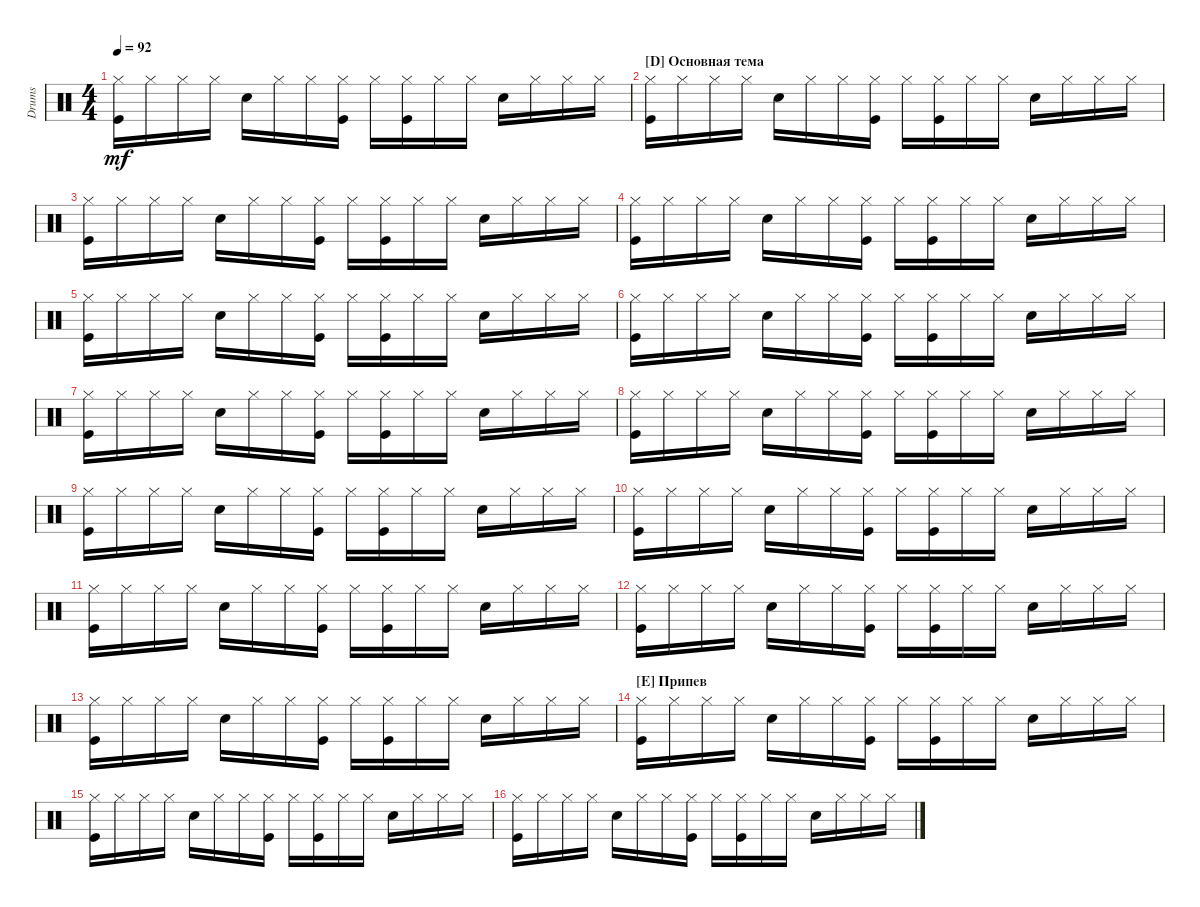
\track ("Drumkit" "Drums") {instrument percussion}
\staff {score}
\articulation defaults
\ts (4 4)
\tempo 92
\clef neutral
\ks c
("Kick (hit)" "Hi-Hat (closed)").16{dy mf} "Hi-Hat (closed)".16 "Hi-Hat (closed)".16 "Hi-Hat (closed)".16 "Snare (hit) 2".16 "Hi-Hat (closed)".16 "Hi-Hat (closed)".16 ("Hi-Hat (closed)" "Kick (hit)").16 "Hi-Hat (closed)".16 ("Hi-Hat (closed)" "Kick (hit)").16 "Hi-Hat (closed)".16 "Hi-Hat (closed)".16 "Snare (hit) 2".16 "Hi-Hat (closed)".16 "Hi-Hat (closed)".16 "Hi-Hat (closed)".16 |
\section ("D" "Основная тема")
("Kick (hit)" "Hi-Hat (closed)").16 "Hi-Hat (closed)".16 "Hi-Hat (closed)".16 "Hi-Hat (closed)".16 "Snare (hit) 2".16 "Hi-Hat (closed)".16 "Hi-Hat (closed)".16 ("Hi-Hat (closed)" "Kick (hit)").16 "Hi-Hat (closed)".16 ("Hi-Hat (closed)" "Kick (hit)").16 "Hi-Hat (closed)".16 "Hi-Hat (closed)".16 "Snare (hit) 2".16 "Hi-Hat (closed)".16 "Hi-Hat (closed)".16 "Hi-Hat (closed)".16 |
("Kick (hit)" "Hi-Hat (closed)").16 "Hi-Hat (closed)".16 "Hi-Hat (closed)".16 "Hi-Hat (closed)".16 "Snare (hit) 2".16 "Hi-Hat (closed)".16 "Hi-Hat (closed)".16 ("Hi-Hat (closed)" "Kick (hit)").16 "Hi-Hat (closed)".16 ("Hi-Hat (closed)" "Kick (hit)").16 "Hi-Hat (closed)".16 "Hi-Hat (closed)".16 "Snare (hit) 2".16 "Hi-Hat (closed)".16 "Hi-Hat (closed)".16 "Hi-Hat (closed)".16 |
("Kick (hit)" "Hi-Hat (closed)").16 "Hi-Hat (closed)".16 "Hi-Hat (closed)".16 "Hi-Hat (closed)".16 "Snare (hit) 2".16 "Hi-Hat (closed)".16 "Hi-Hat (closed)".16 ("Hi-Hat (closed)" "Kick (hit)").16 "Hi-Hat (closed)".16 ("Hi-Hat (closed)" "Kick (hit)").16 "Hi-Hat (closed)".16 "Hi-Hat (closed)".16 "Snare (hit) 2".16 "Hi-Hat (closed)".16 "Hi-Hat (closed)".16 "Hi-Hat (closed)".16 |
("Kick (hit)" "Hi-Hat (closed)").16 "Hi-Hat (closed)".16 "Hi-Hat (closed)".16 "Hi-Hat (closed)".16 "Snare (hit) 2".16 "Hi-Hat (closed)".16 "Hi-Hat (closed)".16 ("Hi-Hat (closed)" "Kick (hit)").16 "Hi-Hat (closed)".16 ("Hi-Hat (closed)" "Kick (hit)").16 "Hi-Hat (closed)".16 "Hi-Hat (closed)".16 "Snare (hit) 2".16 "Hi-Hat (closed)".16 "Hi-Hat (closed)".16 "Hi-Hat (closed)".16 |
("Kick (hit)" "Hi-Hat (closed)").16 "Hi-Hat (closed)".16 "Hi-Hat (closed)".16 "Hi-Hat (closed)".16 "Snare (hit) 2".16 "Hi-Hat (closed)".16 "Hi-Hat (closed)".16 ("Hi-Hat (closed)" "Kick (hit)").16 "Hi-Hat (closed)".16 ("Hi-Hat (closed)" "Kick (hit)").16 "Hi-Hat (closed)".16 "Hi-Hat (closed)".16 "Snare (hit) 2".16 "Hi-Hat (closed)".16 "Hi-Hat (closed)".16 "Hi-Hat (closed)".16 |
("Kick (hit)" "Hi-Hat (closed)").16 "Hi-Hat (closed)".16 "Hi-Hat (closed)".16 "Hi-Hat (closed)".16 "Snare (hit) 2".16 "Hi-Hat (closed)".16 "Hi-Hat (closed)".16 ("Hi-Hat (closed)" "Kick (hit)").16 "Hi-Hat (closed)".16 ("Hi-Hat (closed)" "Kick (hit)").16 "Hi-Hat (closed)".16 "Hi-Hat (closed)".16 "Snare (hit) 2".16 "Hi-Hat (closed)".16 "Hi-Hat (closed)".16 "Hi-Hat (closed)".16 |
("Kick (hit)" "Hi-Hat (closed)").16 "Hi-Hat (closed)".16 "Hi-Hat (closed)".16 "Hi-Hat (closed)".16 "Snare (hit) 2".16 "Hi-Hat (closed)".16 "Hi-Hat (closed)".16 ("Hi-Hat (closed)" "Kick (hit)").16 "Hi-Hat (closed)".16 ("Hi-Hat (closed)" "Kick (hit)").16 "Hi-Hat (closed)".16 "Hi-Hat (closed)".16 "Snare (hit) 2".16 "Hi-Hat (closed)".16 "Hi-Hat (closed)".16 "Hi-Hat (closed)".16 |
("Kick (hit)" "Hi-Hat (closed)").16 "Hi-Hat (closed)".16 "Hi-Hat (closed)".16 "Hi-Hat (closed)".16 "Snare (hit) 2".16 "Hi-Hat (closed)".16 "Hi-Hat (closed)".16 ("Hi-Hat (closed)" "Kick (hit)").16 "Hi-Hat (closed)".16 ("Hi-Hat (closed)" "Kick (hit)").16 "Hi-Hat (closed)".16 "Hi-Hat (closed)".16 "Snare (hit) 2".16 "Hi-Hat (closed)".16 "Hi-Hat (closed)".16 "Hi-Hat (closed)".16 |
("Kick (hit)" "Hi-Hat (closed)").16 "Hi-Hat (closed)".16 "Hi-Hat (closed)".16 "Hi-Hat (closed)".16 "Snare (hit) 2".16 "Hi-Hat (closed)".16 "Hi-Hat (closed)".16 ("Hi-Hat (closed)" "Kick (hit)").16 "Hi-Hat (closed)".16 ("Hi-Hat (closed)" "Kick (hit)").16 "Hi-Hat (closed)".16 "Hi-Hat (closed)".16 "Snare (hit) 2".16 "Hi-Hat (closed)".16 "Hi-Hat (closed)".16 "Hi-Hat (closed)".16 |
("Kick (hit)" "Hi-Hat (closed)").16 "Hi-Hat (closed)".16 "Hi-Hat (closed)".16 "Hi-Hat (closed)".16 "Snare (hit) 2".16 "Hi-Hat (closed)".16 "Hi-Hat (closed)".16 ("Hi-Hat (closed)" "Kick (hit)").16 "Hi-Hat (closed)".16 ("Hi-Hat (closed)" "Kick (hit)").16 "Hi-Hat (closed)".16 "Hi-Hat (closed)".16 "Snare (hit) 2".16 "Hi-Hat (closed)".16 "Hi-Hat (closed)".16 "Hi-Hat (closed)".16 |
("Kick (hit)" "Hi-Hat (closed)").16 "Hi-Hat (closed)".16 "Hi-Hat (closed)".16 "Hi-Hat (closed)".16 "Snare (hit) 2".16 "Hi-Hat (closed)".16 "Hi-Hat (closed)".16 ("Hi-Hat (closed)" "Kick (hit)").16 "Hi-Hat (closed)".16 ("Hi-Hat (closed)" "Kick (hit)").16 "Hi-Hat (closed)".16 "Hi-Hat (closed)".16 "Snare (hit) 2".16 "Hi-Hat (closed)".16 "Hi-Hat (closed)".16 "Hi-Hat (closed)".16 |
("Kick (hit)" "Hi-Hat (closed)").16 "Hi-Hat (closed)".16 "Hi-Hat (closed)".16 "Hi-Hat (closed)".16 "Snare (hit) 2".16 "Hi-Hat (closed)".16 "Hi-Hat (closed)".16 ("Hi-Hat (closed)" "Kick (hit)").16 "Hi-Hat (closed)".16 ("Hi-Hat (closed)" "Kick (hit)").16 "Hi-Hat (closed)".16 "Hi-Hat (closed)".16 "Snare (hit) 2".16 "Hi-Hat (closed)".16 "Hi-Hat (closed)".16 "Hi-Hat (closed)".16 |
\section ("E" "Припев")
("Kick (hit)" "Hi-Hat (closed)").16 "Hi-Hat (closed)".16 "Hi-Hat (closed)".16 "Hi-Hat (closed)".16 "Snare (hit) 2".16 "Hi-Hat (closed)".16 "Hi-Hat (closed)".16 ("Hi-Hat (closed)" "Kick (hit)").16 "Hi-Hat (closed)".16 ("Hi-Hat (closed)" "Kick (hit)").16 "Hi-Hat (closed)".16 "Hi-Hat (closed)".16 "Snare (hit) 2".16 "Hi-Hat (closed)".16 "Hi-Hat (closed)".16 "Hi-Hat (closed)".16 |
("Kick (hit)" "Hi-Hat (closed)").16 "Hi-Hat (closed)".16 "Hi-Hat (closed)".16 "Hi-Hat (closed)".16 "Snare (hit) 2".16 "Hi-Hat (closed)".16 "Hi-Hat (closed)".16 ("Hi-Hat (closed)" "Kick (hit)").16 "Hi-Hat (closed)".16 ("Hi-Hat (closed)" "Kick (hit)").16 "Hi-Hat (closed)".16 "Hi-Hat (closed)".16 "Snare (hit) 2".16 "Hi-Hat (closed)".16 "Hi-Hat (closed)".16 "Hi-Hat (closed)".16 |
("Kick (hit)" "Hi-Hat (closed)").16 "Hi-Hat (closed)".16 "Hi-Hat (closed)".16 "Hi-Hat (closed)".16 "Snare (hit) 2".16 "Hi-Hat (closed)".16 "Hi-Hat (closed)".16 ("Hi-Hat (closed)" "Kick (hit)").16 "Hi-Hat (closed)".16 ("Hi-Hat (closed)" "Kick (hit)").16 "Hi-Hat (closed)".16 "Hi-Hat (closed)".16 "Snare (hit) 2".16 "Hi-Hat (closed)".16 "Hi-Hat (closed)".16 "Hi-Hat (closed)".16
